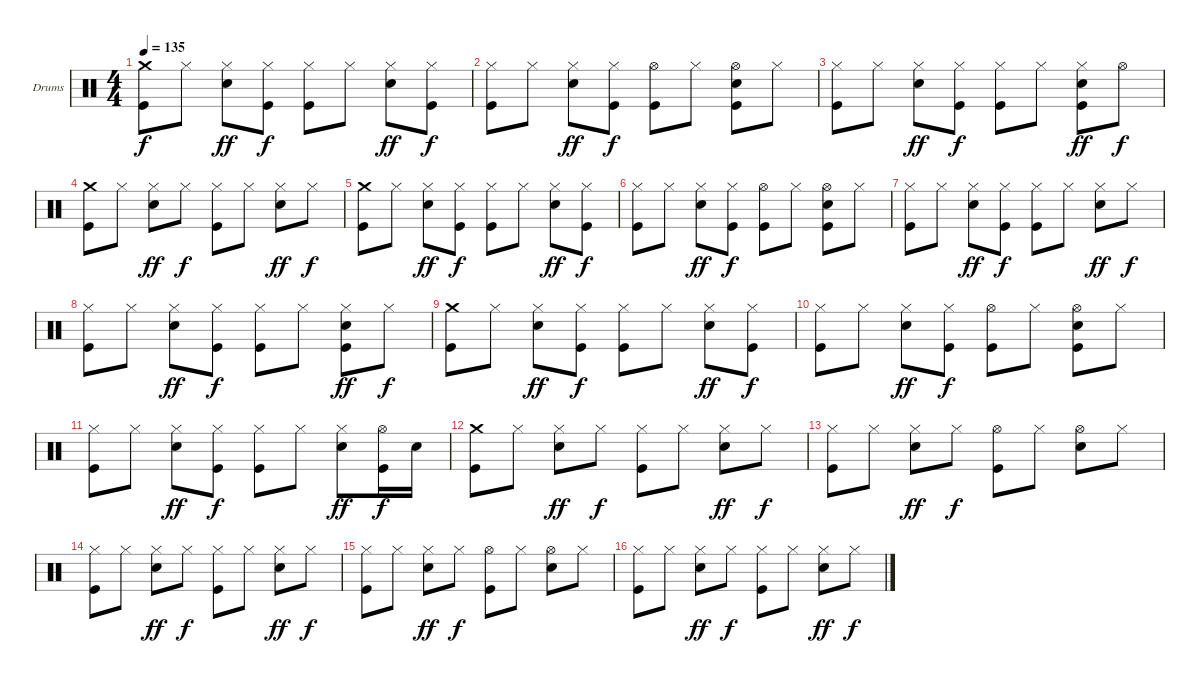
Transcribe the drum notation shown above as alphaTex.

\bracketExtendMode groupsimilarinstruments
\firstSystemTrackNameOrientation horizontal
\otherSystemsTrackNameOrientation horizontal
\track ("Drumkit" "Drums") {instrument percussion}
\staff {score}
\articulation defaults
\ts (4 4)
\tempo 135
\clef neutral
\ks c
("Crash medium (hit)" "Kick (hit)").8{dy f} "Hi-Hat (closed)".8 ("Hi-Hat (closed)" "Snare (hit) 2").8{dy ff} ("Hi-Hat (closed)" "Kick (hit)").8{dy f} ("Hi-Hat (closed)" "Kick (hit)").8 "Hi-Hat (closed)".8 ("Hi-Hat (closed)" "Snare (hit) 2").8{dy ff} ("Hi-Hat (closed)" "Kick (hit)").8{dy f} |
("Hi-Hat (closed)" "Kick (hit)").8 "Hi-Hat (closed)".8 ("Hi-Hat (closed)" "Snare (hit) 2").8{dy ff} ("Hi-Hat (closed)" "Kick (hit)").8{dy f} ("Hi-Hat (open)" "Kick (hit)").8 "Hi-Hat (closed)".8 ("Hi-Hat (open)" "Snare (hit) 2" "Kick (hit)").8 "Hi-Hat (closed)".8 |
("Hi-Hat (closed)" "Kick (hit)").8 "Hi-Hat (closed)".8 ("Hi-Hat (closed)" "Snare (hit) 2").8{dy ff} ("Hi-Hat (closed)" "Kick (hit)").8{dy f} ("Hi-Hat (closed)" "Kick (hit)").8 "Hi-Hat (closed)".8 ("Hi-Hat (closed)" "Snare (hit) 2" "Kick (hit)").8{dy ff} "Hi-Hat (open)".8{dy f} |
("Crash medium (hit)" "Kick (hit)").8 "Hi-Hat (closed)".8 ("Hi-Hat (closed)" "Snare (hit) 2").8{dy ff} "Hi-Hat (closed)".8{dy f} ("Hi-Hat (closed)" "Kick (hit)").8 "Hi-Hat (closed)".8 ("Hi-Hat (closed)" "Snare (hit) 2").8{dy ff} "Hi-Hat (closed)".8{dy f} |
("Crash medium (hit)" "Kick (hit)").8 "Hi-Hat (closed)".8 ("Hi-Hat (closed)" "Snare (hit) 2").8{dy ff} ("Hi-Hat (closed)" "Kick (hit)").8{dy f} ("Hi-Hat (closed)" "Kick (hit)").8 "Hi-Hat (closed)".8 ("Hi-Hat (closed)" "Snare (hit) 2").8{dy ff} ("Hi-Hat (closed)" "Kick (hit)").8{dy f} |
("Hi-Hat (closed)" "Kick (hit)").8 "Hi-Hat (closed)".8 ("Hi-Hat (closed)" "Snare (hit) 2").8{dy ff} ("Hi-Hat (closed)" "Kick (hit)").8{dy f} ("Hi-Hat (open)" "Kick (hit)").8 "Hi-Hat (closed)".8 ("Hi-Hat (open)" "Snare (hit) 2" "Kick (hit)").8 "Hi-Hat (closed)".8 |
("Hi-Hat (closed)" "Kick (hit)").8 "Hi-Hat (closed)".8 ("Hi-Hat (closed)" "Snare (hit) 2").8{dy ff} ("Hi-Hat (closed)" "Kick (hit)").8{dy f} ("Hi-Hat (closed)" "Kick (hit)").8 "Hi-Hat (closed)".8 ("Hi-Hat (closed)" "Snare (hit) 2").8{dy ff} "Hi-Hat (closed)".8{dy f} |
("Hi-Hat (closed)" "Kick (hit)").8 "Hi-Hat (closed)".8 ("Hi-Hat (closed)" "Snare (hit) 2").8{dy ff} ("Hi-Hat (closed)" "Kick (hit)").8{dy f} ("Hi-Hat (closed)" "Kick (hit)").8 "Hi-Hat (closed)".8 ("Hi-Hat (closed)" "Snare (hit) 2" "Kick (hit)").8{dy ff} "Hi-Hat (closed)".8{dy f} |
("Crash medium (hit)" "Kick (hit)").8 "Hi-Hat (closed)".8 ("Hi-Hat (closed)" "Snare (hit) 2").8{dy ff} ("Hi-Hat (closed)" "Kick (hit)").8{dy f} ("Hi-Hat (closed)" "Kick (hit)").8 "Hi-Hat (closed)".8 ("Hi-Hat (closed)" "Snare (hit) 2").8{dy ff} ("Hi-Hat (closed)" "Kick (hit)").8{dy f} |
("Hi-Hat (closed)" "Kick (hit)").8 "Hi-Hat (closed)".8 ("Hi-Hat (closed)" "Snare (hit) 2").8{dy ff} ("Hi-Hat (closed)" "Kick (hit)").8{dy f} ("Hi-Hat (open)" "Kick (hit)").8 "Hi-Hat (closed)".8 ("Hi-Hat (open)" "Snare (hit) 2" "Kick (hit)").8 "Hi-Hat (closed)".8 |
("Hi-Hat (closed)" "Kick (hit)").8 "Hi-Hat (closed)".8 ("Hi-Hat (closed)" "Snare (hit) 2").8{dy ff} ("Hi-Hat (closed)" "Kick (hit)").8{dy f} ("Hi-Hat (closed)" "Kick (hit)").8 "Hi-Hat (closed)".8 ("Hi-Hat (closed)" "Snare (hit) 2").8{dy ff} ("Hi-Hat (open)" "Kick (hit)").16{dy f} "Snare (hit) 2".16 |
("Crash medium (hit)" "Kick (hit)").8 "Hi-Hat (closed)".8 ("Hi-Hat (closed)" "Snare (hit) 2").8{dy ff} "Hi-Hat (closed)".8{dy f} ("Hi-Hat (closed)" "Kick (hit)").8 "Hi-Hat (closed)".8 ("Hi-Hat (closed)" "Snare (hit) 2").8{dy ff} "Hi-Hat (closed)".8{dy f} |
("Hi-Hat (closed)" "Kick (hit)").8 "Hi-Hat (closed)".8 ("Hi-Hat (closed)" "Snare (hit) 2").8{dy ff} "Hi-Hat (closed)".8{dy f} ("Hi-Hat (open)" "Kick (hit)").8 "Hi-Hat (closed)".8 ("Hi-Hat (open)" "Snare (hit) 2").8 "Hi-Hat (closed)".8 |
("Hi-Hat (closed)" "Kick (hit)").8 "Hi-Hat (closed)".8 ("Hi-Hat (closed)" "Snare (hit) 2").8{dy ff} "Hi-Hat (closed)".8{dy f} ("Hi-Hat (closed)" "Kick (hit)").8 "Hi-Hat (closed)".8 ("Hi-Hat (closed)" "Snare (hit) 2").8{dy ff} "Hi-Hat (closed)".8{dy f} |
("Hi-Hat (closed)" "Kick (hit)").8 "Hi-Hat (closed)".8 ("Hi-Hat (closed)" "Snare (hit) 2").8{dy ff} "Hi-Hat (closed)".8{dy f} ("Hi-Hat (open)" "Kick (hit)").8 "Hi-Hat (closed)".8 ("Hi-Hat (open)" "Snare (hit) 2").8 "Hi-Hat (closed)".8 |
("Hi-Hat (closed)" "Kick (hit)").8 "Hi-Hat (closed)".8 ("Hi-Hat (closed)" "Snare (hit) 2").8{dy ff} "Hi-Hat (closed)".8{dy f} ("Hi-Hat (closed)" "Kick (hit)").8 "Hi-Hat (closed)".8 ("Hi-Hat (closed)" "Snare (hit) 2").8{dy ff} "Hi-Hat (closed)".8{dy f}
